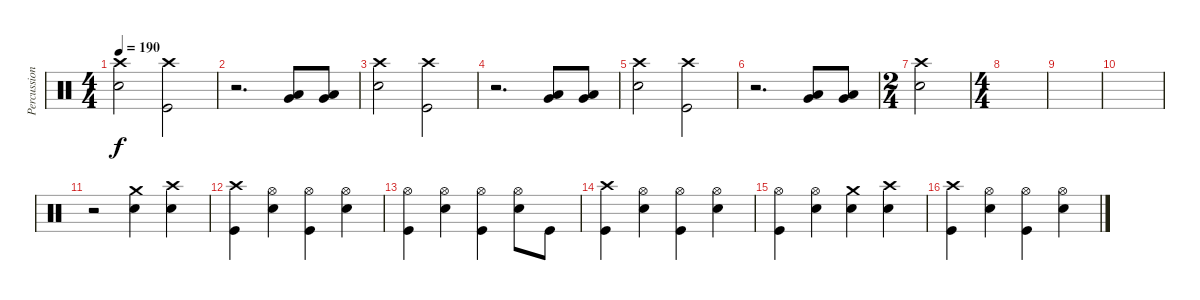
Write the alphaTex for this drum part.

\track ("Percussion" "Percussion") {instrument percussion}
\staff {score}
\articulation defaults
\ts (4 4)
\tempo 190
\clef neutral
\ks c
("Crash high (hit)" "Snare (hit) 2").2{dy f} ("Crash high (hit)" "Kick (hit)").2 |
r.2{d} ("Low Tom (hit)" "Very Low Tom (hit)").8 ("Very Low Tom (hit)" "Low Floor Tom (hit)").8 |
("Crash high (hit)" "Snare (hit) 2").2 ("Crash high (hit)" "Kick (hit)").2 |
r.2{d} ("Low Tom (hit)" "Very Low Tom (hit)").8 ("Very Low Tom (hit)" "Low Floor Tom (hit)").8 |
("Crash high (hit)" "Snare (hit) 2").2 ("Crash high (hit)" "Kick (hit)").2 |
r.2{d} ("Low Tom (hit)" "Very Low Tom (hit)").8 ("Very Low Tom (hit)" "Low Floor Tom (hit)").8 |
\ts (2 4)
("Crash high (hit)" "Snare (hit) 2").2 |
\ts (4 4)
|
|
|
r.2 ("Crash medium (hit)" "Snare (hit) 2").4 ("Crash high (hit)" "Snare (hit) 2").4 |
("Crash high (hit)" "Kick (hit)").4 ("Hi-Hat (open)" "Snare (hit) 2").4 ("Hi-Hat (open)" "Kick (hit)").4 ("Hi-Hat (open)" "Snare (hit) 2").4 |
("Hi-Hat (open)" "Kick (hit)").4 ("Hi-Hat (open)" "Snare (hit) 2").4 ("Hi-Hat (open)" "Kick (hit)").4 ("Hi-Hat (open)" "Snare (hit) 2").8 "Kick (hit)".8 |
("Crash high (hit)" "Kick (hit)").4 ("Hi-Hat (open)" "Snare (hit) 2").4 ("Hi-Hat (open)" "Kick (hit)").4 ("Hi-Hat (open)" "Snare (hit) 2").4 |
("Hi-Hat (open)" "Kick (hit)").4 ("Hi-Hat (open)" "Snare (hit) 2").4 ("Crash medium (hit)" "Snare (hit) 2").4 ("Crash high (hit)" "Snare (hit) 2").4 |
("Crash high (hit)" "Kick (hit)").4 ("Hi-Hat (open)" "Snare (hit) 2").4 ("Hi-Hat (open)" "Kick (hit)").4 ("Hi-Hat (open)" "Snare (hit) 2").4
